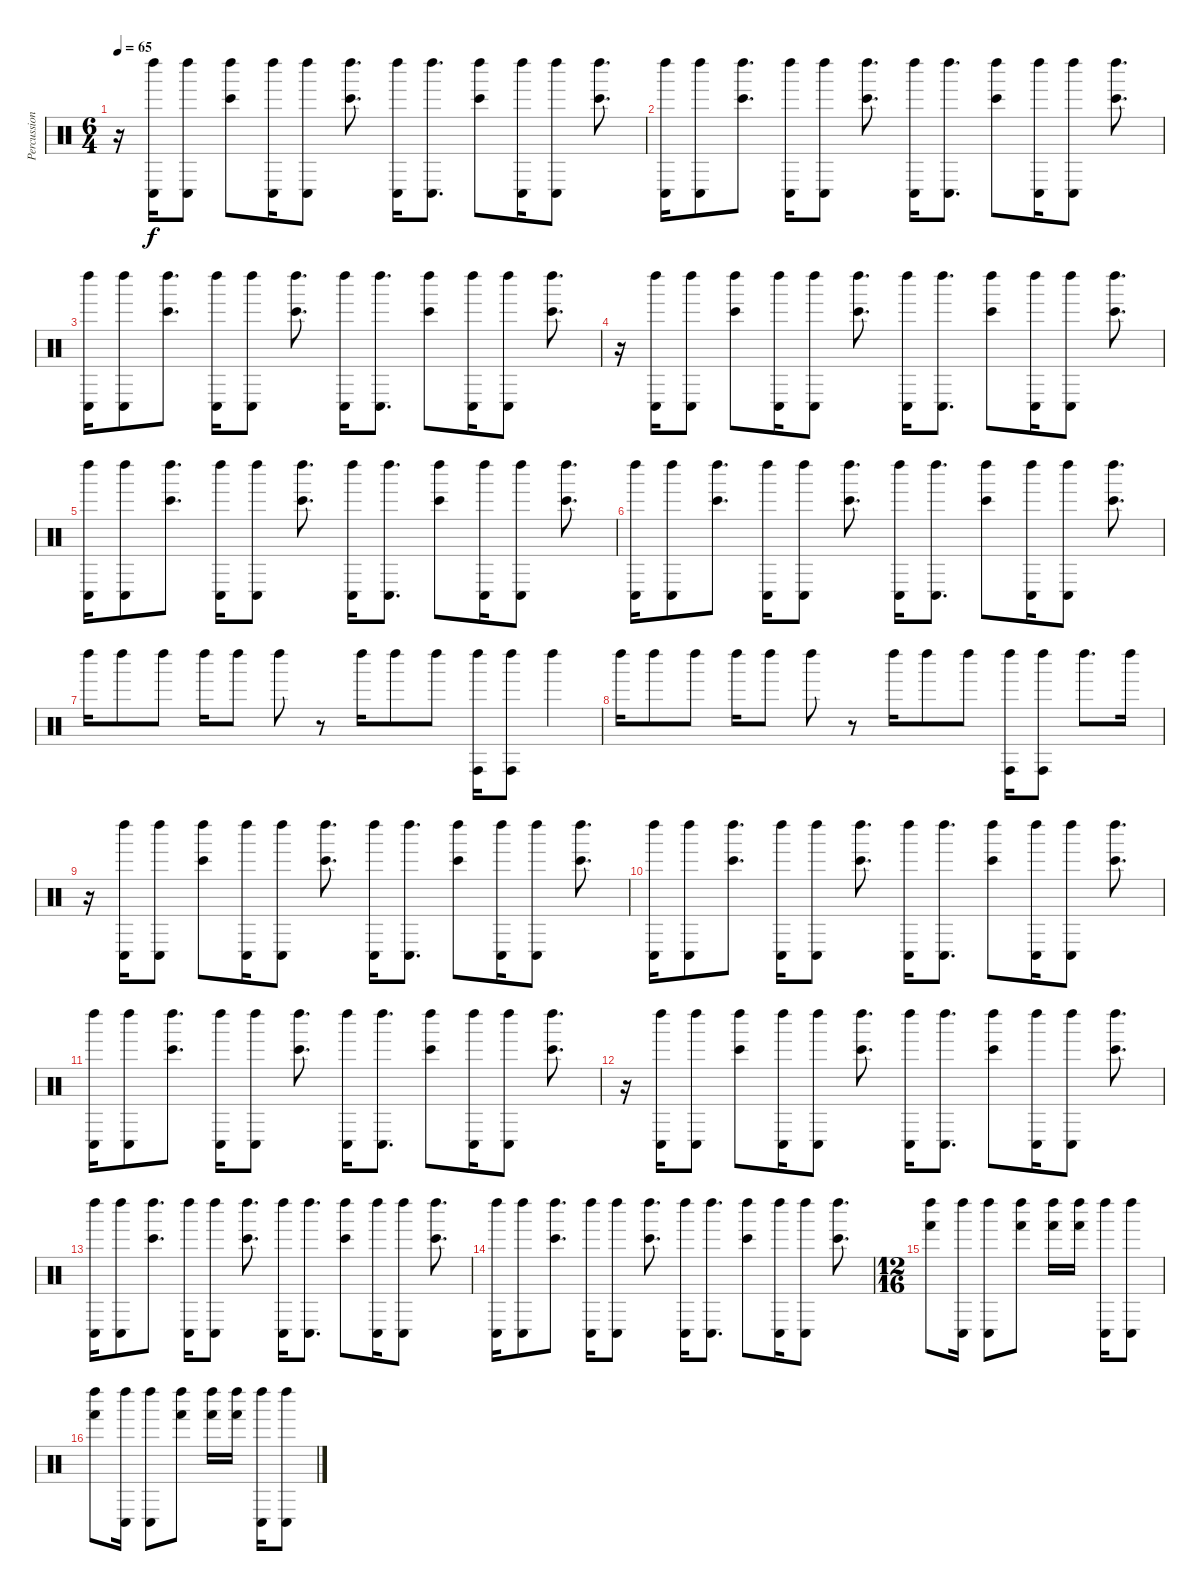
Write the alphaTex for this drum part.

\track ("Percussion" "Percussion") {instrument percussion}
\staff {score}
\articulation defaults
\ts (6 4)
\tempo 65
\clef neutral
\ks c
r.16{dy f} ("Left Maraca (hit)" "Conga low (hit)").16 ("Left Maraca (hit)" "Conga low (hit)").8 ("Left Maraca (hit)" "Bongo High (hit)").8 ("Left Maraca (hit)" "Conga low (hit)").16 ("Left Maraca (hit)" "Conga low (hit)").8 ("Left Maraca (hit)" "Bongo High (hit)").8{d} ("Left Maraca (hit)" "Conga low (hit)").16 ("Left Maraca (hit)" "Conga low (hit)").8{d} ("Left Maraca (hit)" "Bongo High (hit)").8 ("Left Maraca (hit)" "Conga low (hit)").16 ("Left Maraca (hit)" "Conga low (hit)").8 ("Left Maraca (hit)" "Bongo High (hit)").8{d} |
("Left Maraca (hit)" "Conga low (hit)").16 ("Left Maraca (hit)" "Conga low (hit)").8 ("Left Maraca (hit)" "Bongo High (hit)").8{d} ("Left Maraca (hit)" "Conga low (hit)").16 ("Left Maraca (hit)" "Conga low (hit)").8 ("Left Maraca (hit)" "Bongo High (hit)").8{d} ("Left Maraca (hit)" "Conga low (hit)").16 ("Left Maraca (hit)" "Conga low (hit)").8{d} ("Left Maraca (hit)" "Bongo High (hit)").8 ("Left Maraca (hit)" "Conga low (hit)").16 ("Left Maraca (hit)" "Conga low (hit)").8 ("Left Maraca (hit)" "Bongo High (hit)").8{d} |
("Left Maraca (hit)" "Conga low (hit)").16 ("Left Maraca (hit)" "Conga low (hit)").8 ("Left Maraca (hit)" "Bongo High (hit)").8{d} ("Left Maraca (hit)" "Conga low (hit)").16 ("Left Maraca (hit)" "Conga low (hit)").8 ("Left Maraca (hit)" "Bongo High (hit)").8{d} ("Left Maraca (hit)" "Conga low (hit)").16 ("Left Maraca (hit)" "Conga low (hit)").8{d} ("Left Maraca (hit)" "Bongo High (hit)").8 ("Left Maraca (hit)" "Conga low (hit)").16 ("Left Maraca (hit)" "Conga low (hit)").8 ("Left Maraca (hit)" "Bongo High (hit)").8{d} |
r.16 ("Left Maraca (hit)" "Conga low (hit)").16 ("Left Maraca (hit)" "Conga low (hit)").8 ("Left Maraca (hit)" "Bongo High (hit)").8 ("Left Maraca (hit)" "Conga low (hit)").16 ("Left Maraca (hit)" "Conga low (hit)").8 ("Left Maraca (hit)" "Bongo High (hit)").8{d} ("Left Maraca (hit)" "Conga low (hit)").16 ("Left Maraca (hit)" "Conga low (hit)").8{d} ("Left Maraca (hit)" "Bongo High (hit)").8 ("Left Maraca (hit)" "Conga low (hit)").16 ("Left Maraca (hit)" "Conga low (hit)").8 ("Left Maraca (hit)" "Bongo High (hit)").8{d} |
("Left Maraca (hit)" "Conga low (hit)").16 ("Left Maraca (hit)" "Conga low (hit)").8 ("Left Maraca (hit)" "Bongo High (hit)").8{d} ("Left Maraca (hit)" "Conga low (hit)").16 ("Left Maraca (hit)" "Conga low (hit)").8 ("Left Maraca (hit)" "Bongo High (hit)").8{d} ("Left Maraca (hit)" "Conga low (hit)").16 ("Left Maraca (hit)" "Conga low (hit)").8{d} ("Left Maraca (hit)" "Bongo High (hit)").8 ("Left Maraca (hit)" "Conga low (hit)").16 ("Left Maraca (hit)" "Conga low (hit)").8 ("Left Maraca (hit)" "Bongo High (hit)").8{d} |
("Left Maraca (hit)" "Conga low (hit)").16 ("Left Maraca (hit)" "Conga low (hit)").8 ("Left Maraca (hit)" "Bongo High (hit)").8{d} ("Left Maraca (hit)" "Conga low (hit)").16 ("Left Maraca (hit)" "Conga low (hit)").8 ("Left Maraca (hit)" "Bongo High (hit)").8{d} ("Left Maraca (hit)" "Conga low (hit)").16 ("Left Maraca (hit)" "Conga low (hit)").8{d} ("Left Maraca (hit)" "Bongo High (hit)").8 ("Left Maraca (hit)" "Conga low (hit)").16 ("Left Maraca (hit)" "Conga low (hit)").8 ("Left Maraca (hit)" "Bongo High (hit)").8{d} |
"Left Maraca (hit)".16 "Left Maraca (hit)".8 "Left Maraca (hit)".8 "Left Maraca (hit)".16 "Left Maraca (hit)".8 "Left Maraca (hit)".8 r.8 "Left Maraca (hit)".16 "Left Maraca (hit)".8 "Left Maraca (hit)".8 ("Left Maraca (hit)" "Conga high (hit)").16 ("Left Maraca (hit)" "Conga high (hit)").8 "Left Maraca (hit)".4 |
"Left Maraca (hit)".16 "Left Maraca (hit)".8 "Left Maraca (hit)".8 "Left Maraca (hit)".16 "Left Maraca (hit)".8 "Left Maraca (hit)".8 r.8 "Left Maraca (hit)".16 "Left Maraca (hit)".8 "Left Maraca (hit)".8 ("Left Maraca (hit)" "Conga high (hit)").16 ("Left Maraca (hit)" "Conga high (hit)").8 "Left Maraca (hit)".8{d} "Left Maraca (hit)".16 |
r.16 ("Left Maraca (hit)" "Conga low (hit)").16 ("Left Maraca (hit)" "Conga low (hit)").8 ("Left Maraca (hit)" "Bongo High (hit)").8 ("Left Maraca (hit)" "Conga low (hit)").16 ("Left Maraca (hit)" "Conga low (hit)").8 ("Left Maraca (hit)" "Bongo High (hit)").8{d} ("Left Maraca (hit)" "Conga low (hit)").16 ("Left Maraca (hit)" "Conga low (hit)").8{d} ("Left Maraca (hit)" "Bongo High (hit)").8 ("Left Maraca (hit)" "Conga low (hit)").16 ("Left Maraca (hit)" "Conga low (hit)").8 ("Left Maraca (hit)" "Bongo High (hit)").8{d} |
("Left Maraca (hit)" "Conga low (hit)").16 ("Left Maraca (hit)" "Conga low (hit)").8 ("Left Maraca (hit)" "Bongo High (hit)").8{d} ("Left Maraca (hit)" "Conga low (hit)").16 ("Left Maraca (hit)" "Conga low (hit)").8 ("Left Maraca (hit)" "Bongo High (hit)").8{d} ("Left Maraca (hit)" "Conga low (hit)").16 ("Left Maraca (hit)" "Conga low (hit)").8{d} ("Left Maraca (hit)" "Bongo High (hit)").8 ("Left Maraca (hit)" "Conga low (hit)").16 ("Left Maraca (hit)" "Conga low (hit)").8 ("Left Maraca (hit)" "Bongo High (hit)").8{d} |
("Left Maraca (hit)" "Conga low (hit)").16 ("Left Maraca (hit)" "Conga low (hit)").8 ("Left Maraca (hit)" "Bongo High (hit)").8{d} ("Left Maraca (hit)" "Conga low (hit)").16 ("Left Maraca (hit)" "Conga low (hit)").8 ("Left Maraca (hit)" "Bongo High (hit)").8{d} ("Left Maraca (hit)" "Conga low (hit)").16 ("Left Maraca (hit)" "Conga low (hit)").8{d} ("Left Maraca (hit)" "Bongo High (hit)").8 ("Left Maraca (hit)" "Conga low (hit)").16 ("Left Maraca (hit)" "Conga low (hit)").8 ("Left Maraca (hit)" "Bongo High (hit)").8{d} |
r.16 ("Left Maraca (hit)" "Conga low (hit)").16 ("Left Maraca (hit)" "Conga low (hit)").8 ("Left Maraca (hit)" "Bongo High (hit)").8 ("Left Maraca (hit)" "Conga low (hit)").16 ("Left Maraca (hit)" "Conga low (hit)").8 ("Left Maraca (hit)" "Bongo High (hit)").8{d} ("Left Maraca (hit)" "Conga low (hit)").16 ("Left Maraca (hit)" "Conga low (hit)").8{d} ("Left Maraca (hit)" "Bongo High (hit)").8 ("Left Maraca (hit)" "Conga low (hit)").16 ("Left Maraca (hit)" "Conga low (hit)").8 ("Left Maraca (hit)" "Bongo High (hit)").8{d} |
("Left Maraca (hit)" "Conga low (hit)").16 ("Left Maraca (hit)" "Conga low (hit)").8 ("Left Maraca (hit)" "Bongo High (hit)").8{d} ("Left Maraca (hit)" "Conga low (hit)").16 ("Left Maraca (hit)" "Conga low (hit)").8 ("Left Maraca (hit)" "Bongo High (hit)").8{d} ("Left Maraca (hit)" "Conga low (hit)").16 ("Left Maraca (hit)" "Conga low (hit)").8{d} ("Left Maraca (hit)" "Bongo High (hit)").8 ("Left Maraca (hit)" "Conga low (hit)").16 ("Left Maraca (hit)" "Conga low (hit)").8 ("Left Maraca (hit)" "Bongo High (hit)").8{d} |
("Left Maraca (hit)" "Conga low (hit)").16 ("Left Maraca (hit)" "Conga low (hit)").8 ("Left Maraca (hit)" "Bongo High (hit)").8{d} ("Left Maraca (hit)" "Conga low (hit)").16 ("Left Maraca (hit)" "Conga low (hit)").8 ("Left Maraca (hit)" "Bongo High (hit)").8{d} ("Left Maraca (hit)" "Conga low (hit)").16 ("Left Maraca (hit)" "Conga low (hit)").8{d} ("Left Maraca (hit)" "Bongo High (hit)").8 ("Left Maraca (hit)" "Conga low (hit)").16 ("Left Maraca (hit)" "Conga low (hit)").8 ("Left Maraca (hit)" "Bongo High (hit)").8{d} |
\ts (12 16)
("Left Maraca (hit)" "Hand (hit)").8 ("Left Maraca (hit)" "Conga low (hit)").16 ("Left Maraca (hit)" "Conga low (hit)").8 ("Left Maraca (hit)" "Hand (hit)").8 ("Left Maraca (hit)" "Hand (hit)").16 ("Left Maraca (hit)" "Hand (hit)").16 ("Left Maraca (hit)" "Conga low (hit)").16 ("Left Maraca (hit)" "Conga low (hit)").8 |
("Left Maraca (hit)" "Hand (hit)").8 ("Left Maraca (hit)" "Conga low (hit)").16 ("Left Maraca (hit)" "Conga low (hit)").8 ("Left Maraca (hit)" "Hand (hit)").8 ("Left Maraca (hit)" "Hand (hit)").16 ("Left Maraca (hit)" "Hand (hit)").16 ("Left Maraca (hit)" "Conga low (hit)").16 ("Left Maraca (hit)" "Conga low (hit)").8
